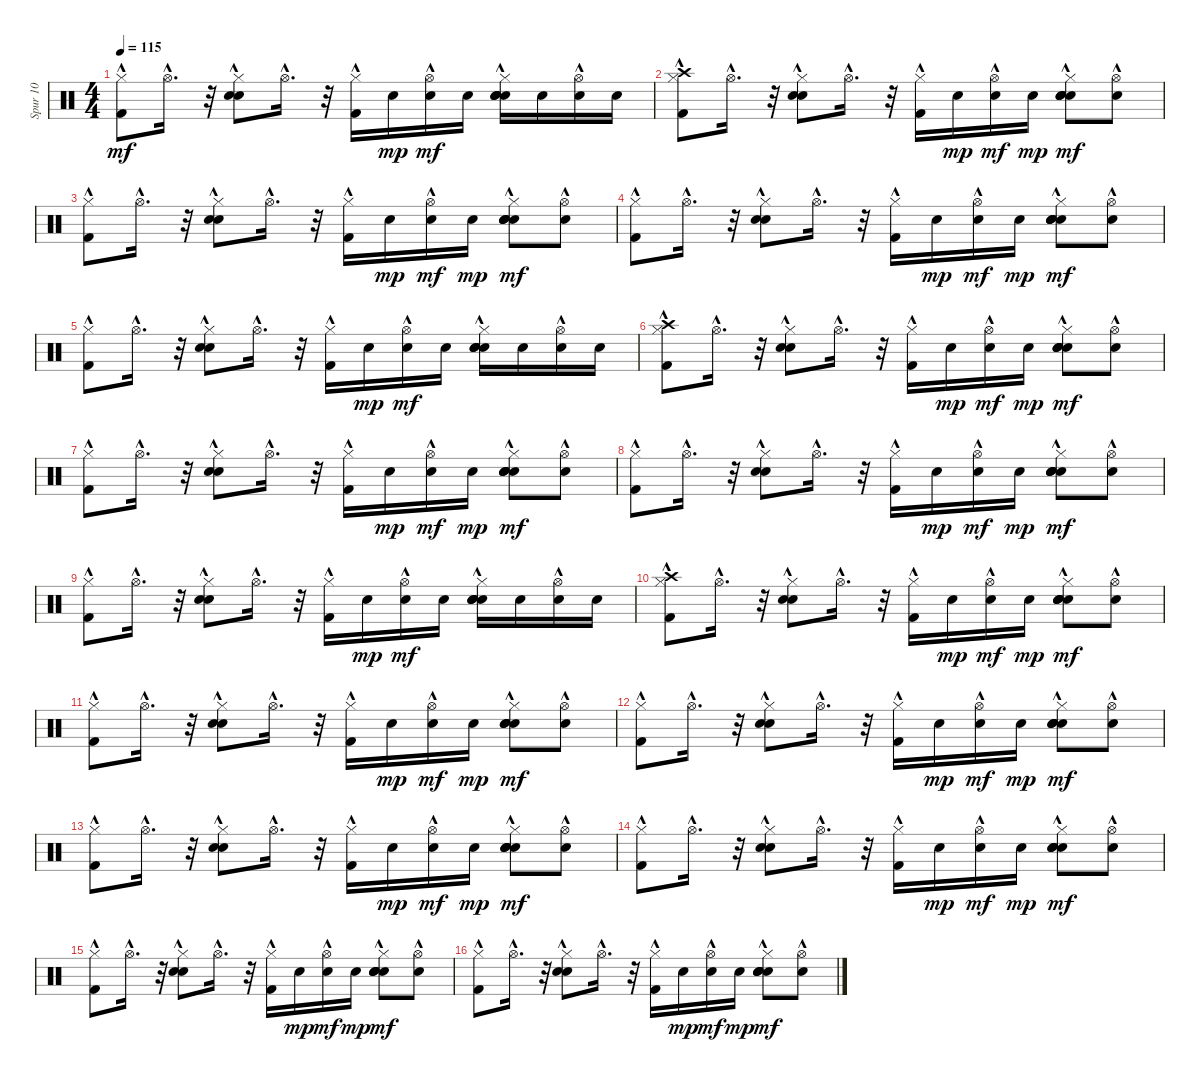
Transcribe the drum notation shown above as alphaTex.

\track ("Spur 10" "Spur 10") {instrument percussion}
\staff {score}
\articulation defaults
\ts (4 4)
\tempo 115
\clef neutral
\ks c
("Hi-Hat (closed)"{hac} "Kick (hit) 2"{hac}).8{dy mf} "Hi-Hat (open)"{hac}.16{d} r.32 ("Hi-Hat (closed)"{hac} "Snare (hit) 2"{hac} "Hand Clap (hit)"{hac}).8 "Hi-Hat (open)"{hac}.16{d} r.32 ("Hi-Hat (closed)"{hac} "Kick (hit) 2"{hac}).16 "Snare (hit) 2".16{dy mp} ("Snare (hit) 2" "Hi-Hat (open)"{hac}).16{dy mf} "Snare (hit) 2".16 ("Snare (hit) 2" "Snare (hit) 2" "Hi-Hat (closed)"{hac} "Snare (hit) 2" "Hand Clap (hit)"{hac}).16 "Snare (hit) 2".16 ("Snare (hit) 2" "Hi-Hat (open)"{hac}).16 "Snare (hit) 2".16 |
("Crash high (hit)"{hac} "Hi-Hat (closed)"{hac} "Kick (hit) 2"{hac}).8 "Hi-Hat (open)"{hac}.16{d} r.32 ("Hi-Hat (closed)"{hac} "Hand Clap (hit)"{hac} "Snare (hit) 2"{hac}).8 "Hi-Hat (open)"{hac}.16{d} r.32 ("Hi-Hat (closed)"{hac} "Kick (hit) 2"{hac}).16 "Snare (hit) 2".16{dy mp} ("Snare (hit) 2" "Hi-Hat (open)"{hac}).16{dy mf} "Snare (hit) 2".16{dy mp} ("Snare (hit) 2" "Snare (hit) 2" "Hi-Hat (closed)"{hac} "Snare (hit) 2" "Hand Clap (hit)"{hac}).8{dy mf} ("Snare (hit) 2" "Hi-Hat (open)"{hac}).8 |
("Hi-Hat (closed)"{hac} "Kick (hit) 2"{hac}).8 "Hi-Hat (open)"{hac}.16{d} r.32 ("Hi-Hat (closed)"{hac} "Snare (hit) 2"{hac} "Hand Clap (hit)"{hac}).8 "Hi-Hat (open)"{hac}.16{d} r.32 ("Hi-Hat (closed)"{hac} "Kick (hit) 2"{hac}).16 "Snare (hit) 2".16{dy mp} ("Snare (hit) 2" "Hi-Hat (open)"{hac}).16{dy mf} "Snare (hit) 2".16{dy mp} ("Snare (hit) 2" "Snare (hit) 2" "Hi-Hat (closed)"{hac} "Snare (hit) 2" "Hand Clap (hit)"{hac}).8{dy mf} ("Snare (hit) 2" "Hi-Hat (open)"{hac}).8 |
("Hi-Hat (closed)"{hac} "Kick (hit) 2"{hac}).8 "Hi-Hat (open)"{hac}.16{d} r.32 ("Hi-Hat (closed)"{hac} "Hand Clap (hit)"{hac} "Snare (hit) 2"{hac}).8 "Hi-Hat (open)"{hac}.16{d} r.32 ("Hi-Hat (closed)"{hac} "Kick (hit) 2"{hac}).16 "Snare (hit) 2".16{dy mp} ("Snare (hit) 2" "Hi-Hat (open)"{hac}).16{dy mf} "Snare (hit) 2".16{dy mp} ("Snare (hit) 2" "Snare (hit) 2" "Hi-Hat (closed)"{hac} "Snare (hit) 2" "Hand Clap (hit)"{hac}).8{dy mf} ("Snare (hit) 2" "Hi-Hat (open)"{hac}).8 |
("Hi-Hat (closed)"{hac} "Kick (hit) 2"{hac}).8 "Hi-Hat (open)"{hac}.16{d} r.32 ("Hi-Hat (closed)"{hac} "Snare (hit) 2"{hac} "Hand Clap (hit)"{hac}).8 "Hi-Hat (open)"{hac}.16{d} r.32 ("Hi-Hat (closed)"{hac} "Kick (hit) 2"{hac}).16 "Snare (hit) 2".16{dy mp} ("Snare (hit) 2" "Hi-Hat (open)"{hac}).16{dy mf} "Snare (hit) 2".16 ("Snare (hit) 2" "Snare (hit) 2" "Hi-Hat (closed)"{hac} "Snare (hit) 2" "Hand Clap (hit)"{hac}).16 "Snare (hit) 2".16 ("Snare (hit) 2" "Hi-Hat (open)"{hac}).16 "Snare (hit) 2".16 |
("Crash high (hit)"{hac} "Hi-Hat (closed)"{hac} "Kick (hit) 2"{hac}).8 "Hi-Hat (open)"{hac}.16{d} r.32 ("Hi-Hat (closed)"{hac} "Hand Clap (hit)"{hac} "Snare (hit) 2"{hac}).8 "Hi-Hat (open)"{hac}.16{d} r.32 ("Hi-Hat (closed)"{hac} "Kick (hit) 2"{hac}).16 "Snare (hit) 2".16{dy mp} ("Snare (hit) 2" "Hi-Hat (open)"{hac}).16{dy mf} "Snare (hit) 2".16{dy mp} ("Snare (hit) 2" "Snare (hit) 2" "Hi-Hat (closed)"{hac} "Snare (hit) 2" "Hand Clap (hit)"{hac}).8{dy mf} ("Snare (hit) 2" "Hi-Hat (open)"{hac}).8 |
("Hi-Hat (closed)"{hac} "Kick (hit) 2"{hac}).8 "Hi-Hat (open)"{hac}.16{d} r.32 ("Hi-Hat (closed)"{hac} "Snare (hit) 2"{hac} "Hand Clap (hit)"{hac}).8 "Hi-Hat (open)"{hac}.16{d} r.32 ("Hi-Hat (closed)"{hac} "Kick (hit) 2"{hac}).16 "Snare (hit) 2".16{dy mp} ("Snare (hit) 2" "Hi-Hat (open)"{hac}).16{dy mf} "Snare (hit) 2".16{dy mp} ("Snare (hit) 2" "Snare (hit) 2" "Hi-Hat (closed)"{hac} "Snare (hit) 2" "Hand Clap (hit)"{hac}).8{dy mf} ("Snare (hit) 2" "Hi-Hat (open)"{hac}).8 |
("Hi-Hat (closed)"{hac} "Kick (hit) 2"{hac}).8 "Hi-Hat (open)"{hac}.16{d} r.32 ("Hi-Hat (closed)"{hac} "Hand Clap (hit)"{hac} "Snare (hit) 2"{hac}).8 "Hi-Hat (open)"{hac}.16{d} r.32 ("Hi-Hat (closed)"{hac} "Kick (hit) 2"{hac}).16 "Snare (hit) 2".16{dy mp} ("Snare (hit) 2" "Hi-Hat (open)"{hac}).16{dy mf} "Snare (hit) 2".16{dy mp} ("Snare (hit) 2" "Snare (hit) 2" "Hi-Hat (closed)"{hac} "Snare (hit) 2" "Hand Clap (hit)"{hac}).8{dy mf} ("Snare (hit) 2" "Hi-Hat (open)"{hac}).8 |
("Hi-Hat (closed)"{hac} "Kick (hit) 2"{hac}).8 "Hi-Hat (open)"{hac}.16{d} r.32 ("Hi-Hat (closed)"{hac} "Snare (hit) 2"{hac} "Hand Clap (hit)"{hac}).8 "Hi-Hat (open)"{hac}.16{d} r.32 ("Hi-Hat (closed)"{hac} "Kick (hit) 2"{hac}).16 "Snare (hit) 2".16{dy mp} ("Snare (hit) 2" "Hi-Hat (open)"{hac}).16{dy mf} "Snare (hit) 2".16 ("Snare (hit) 2" "Snare (hit) 2" "Hi-Hat (closed)"{hac} "Snare (hit) 2" "Hand Clap (hit)"{hac}).16 "Snare (hit) 2".16 ("Snare (hit) 2" "Hi-Hat (open)"{hac}).16 "Snare (hit) 2".16 |
("Crash high (hit)"{hac} "Hi-Hat (closed)"{hac} "Kick (hit) 2"{hac}).8 "Hi-Hat (open)"{hac}.16{d} r.32 ("Hi-Hat (closed)"{hac} "Hand Clap (hit)"{hac} "Snare (hit) 2"{hac}).8 "Hi-Hat (open)"{hac}.16{d} r.32 ("Hi-Hat (closed)"{hac} "Kick (hit) 2"{hac}).16 "Snare (hit) 2".16{dy mp} ("Snare (hit) 2" "Hi-Hat (open)"{hac}).16{dy mf} "Snare (hit) 2".16{dy mp} ("Snare (hit) 2" "Snare (hit) 2" "Hi-Hat (closed)"{hac} "Snare (hit) 2" "Hand Clap (hit)"{hac}).8{dy mf} ("Snare (hit) 2" "Hi-Hat (open)"{hac}).8 |
("Hi-Hat (closed)"{hac} "Kick (hit) 2"{hac}).8 "Hi-Hat (open)"{hac}.16{d} r.32 ("Hi-Hat (closed)"{hac} "Snare (hit) 2"{hac} "Hand Clap (hit)"{hac}).8 "Hi-Hat (open)"{hac}.16{d} r.32 ("Hi-Hat (closed)"{hac} "Kick (hit) 2"{hac}).16 "Snare (hit) 2".16{dy mp} ("Snare (hit) 2" "Hi-Hat (open)"{hac}).16{dy mf} "Snare (hit) 2".16{dy mp} ("Snare (hit) 2" "Snare (hit) 2" "Hi-Hat (closed)"{hac} "Snare (hit) 2" "Hand Clap (hit)"{hac}).8{dy mf} ("Snare (hit) 2" "Hi-Hat (open)"{hac}).8 |
("Hi-Hat (closed)"{hac} "Kick (hit) 2"{hac}).8 "Hi-Hat (open)"{hac}.16{d} r.32 ("Hi-Hat (closed)"{hac} "Hand Clap (hit)"{hac} "Snare (hit) 2"{hac}).8 "Hi-Hat (open)"{hac}.16{d} r.32 ("Hi-Hat (closed)"{hac} "Kick (hit) 2"{hac}).16 "Snare (hit) 2".16{dy mp} ("Snare (hit) 2" "Hi-Hat (open)"{hac}).16{dy mf} "Snare (hit) 2".16{dy mp} ("Snare (hit) 2" "Snare (hit) 2" "Hi-Hat (closed)"{hac} "Snare (hit) 2" "Hand Clap (hit)"{hac}).8{dy mf} ("Snare (hit) 2" "Hi-Hat (open)"{hac}).8 |
("Hi-Hat (closed)"{hac} "Kick (hit) 2"{hac}).8 "Hi-Hat (open)"{hac}.16{d} r.32 ("Hi-Hat (closed)"{hac} "Snare (hit) 2"{hac} "Hand Clap (hit)"{hac}).8 "Hi-Hat (open)"{hac}.16{d} r.32 ("Hi-Hat (closed)"{hac} "Kick (hit) 2"{hac}).16 "Snare (hit) 2".16{dy mp} ("Snare (hit) 2" "Hi-Hat (open)"{hac}).16{dy mf} "Snare (hit) 2".16{dy mp} ("Snare (hit) 2" "Snare (hit) 2" "Hi-Hat (closed)"{hac} "Snare (hit) 2" "Hand Clap (hit)"{hac}).8{dy mf} ("Snare (hit) 2" "Hi-Hat (open)"{hac}).8 |
("Hi-Hat (closed)"{hac} "Kick (hit) 2"{hac}).8 "Hi-Hat (open)"{hac}.16{d} r.32 ("Hi-Hat (closed)"{hac} "Hand Clap (hit)"{hac} "Snare (hit) 2"{hac}).8 "Hi-Hat (open)"{hac}.16{d} r.32 ("Hi-Hat (closed)"{hac} "Kick (hit) 2"{hac}).16 "Snare (hit) 2".16{dy mp} ("Snare (hit) 2" "Hi-Hat (open)"{hac}).16{dy mf} "Snare (hit) 2".16{dy mp} ("Snare (hit) 2" "Snare (hit) 2" "Hi-Hat (closed)"{hac} "Snare (hit) 2" "Hand Clap (hit)"{hac}).8{dy mf} ("Snare (hit) 2" "Hi-Hat (open)"{hac}).8 |
("Hi-Hat (closed)"{hac} "Kick (hit) 2"{hac}).8 "Hi-Hat (open)"{hac}.16{d} r.32 ("Hi-Hat (closed)"{hac} "Snare (hit) 2"{hac} "Hand Clap (hit)"{hac}).8 "Hi-Hat (open)"{hac}.16{d} r.32 ("Hi-Hat (closed)"{hac} "Kick (hit) 2"{hac}).16 "Snare (hit) 2".16{dy mp} ("Snare (hit) 2" "Hi-Hat (open)"{hac}).16{dy mf} "Snare (hit) 2".16{dy mp} ("Snare (hit) 2" "Snare (hit) 2" "Hi-Hat (closed)"{hac} "Snare (hit) 2" "Hand Clap (hit)"{hac}).8{dy mf} ("Snare (hit) 2" "Hi-Hat (open)"{hac}).8 |
("Hi-Hat (closed)"{hac} "Kick (hit) 2"{hac}).8 "Hi-Hat (open)"{hac}.16{d} r.32 ("Hi-Hat (closed)"{hac} "Hand Clap (hit)"{hac} "Snare (hit) 2"{hac}).8 "Hi-Hat (open)"{hac}.16{d} r.32 ("Hi-Hat (closed)"{hac} "Kick (hit) 2"{hac}).16 "Snare (hit) 2".16{dy mp} ("Snare (hit) 2" "Hi-Hat (open)"{hac}).16{dy mf} "Snare (hit) 2".16{dy mp} ("Snare (hit) 2" "Snare (hit) 2" "Hi-Hat (closed)"{hac} "Snare (hit) 2" "Hand Clap (hit)"{hac}).8{dy mf} ("Snare (hit) 2" "Hi-Hat (open)"{hac}).8
